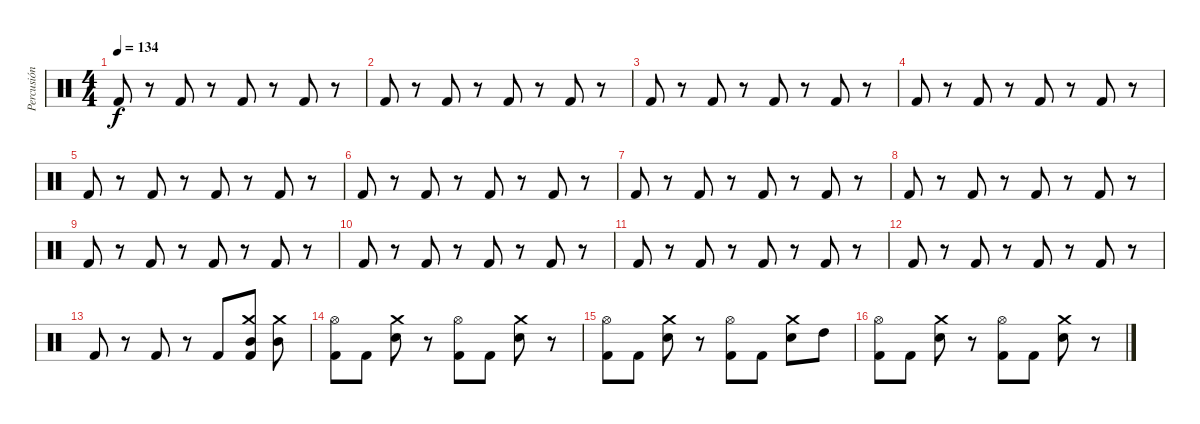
\track ("Percusión" "Percusión") {instrument percussion}
\staff {score}
\articulation defaults
\ts (4 4)
\tempo 134
\clef neutral
\ks c "Kick (hit) 2".8{dy f}
r.8 "Kick (hit) 2".8 r.8 "Kick (hit) 2".8 r.8 "Kick (hit) 2".8 r.8 |
"Kick (hit) 2".8 r.8 "Kick (hit) 2".8 r.8 "Kick (hit) 2".8 r.8 "Kick (hit) 2".8 r.8 |
"Kick (hit) 2".8 r.8 "Kick (hit) 2".8 r.8 "Kick (hit) 2".8 r.8 "Kick (hit) 2".8 r.8 |
"Kick (hit) 2".8 r.8 "Kick (hit) 2".8 r.8 "Kick (hit) 2".8 r.8 "Kick (hit) 2".8 r.8 |
"Kick (hit) 2".8 r.8 "Kick (hit) 2".8 r.8 "Kick (hit) 2".8 r.8 "Kick (hit) 2".8 r.8 |
"Kick (hit) 2".8 r.8 "Kick (hit) 2".8 r.8 "Kick (hit) 2".8 r.8 "Kick (hit) 2".8 r.8 |
"Kick (hit) 2".8 r.8 "Kick (hit) 2".8 r.8 "Kick (hit) 2".8 r.8 "Kick (hit) 2".8 r.8 |
"Kick (hit) 2".8 r.8 "Kick (hit) 2".8 r.8 "Kick (hit) 2".8 r.8 "Kick (hit) 2".8 r.8 |
"Kick (hit) 2".8 r.8 "Kick (hit) 2".8 r.8 "Kick (hit) 2".8 r.8 "Kick (hit) 2".8 r.8 |
"Kick (hit) 2".8 r.8 "Kick (hit) 2".8 r.8 "Kick (hit) 2".8 r.8 "Kick (hit) 2".8 r.8 |
"Kick (hit) 2".8 r.8 "Kick (hit) 2".8 r.8 "Kick (hit) 2".8 r.8 "Kick (hit) 2".8 r.8 |
"Kick (hit) 2".8 r.8 "Kick (hit) 2".8 r.8 "Kick (hit) 2".8 r.8 "Kick (hit) 2".8 r.8 |
"Kick (hit) 2".8 r.8 "Kick (hit) 2".8 r.8 "Kick (hit) 2".8 ("Crash medium (hit)" "Mid Tom (hit)" "Kick (hit) 2").8 ("Crash medium (hit)" "Mid Tom (hit)").8 |
("Hi-Hat (open)" "Kick (hit) 2").8 "Kick (hit) 2".8 ("Crash medium (hit)" "Snare (hit) 2").8 r.8 ("Hi-Hat (open)" "Kick (hit) 2").8 "Kick (hit) 2".8 ("Crash medium (hit)" "Snare (hit) 2").8 r.8 |
("Hi-Hat (open)" "Kick (hit) 2").8 "Kick (hit) 2".8 ("Crash medium (hit)" "Snare (hit) 2").8 r.8 ("Hi-Hat (open)" "Kick (hit) 2").8 "Kick (hit) 2".8 ("Crash medium (hit)" "Snare (hit) 2").8 "High Tom (hit)".8 |
("Hi-Hat (open)" "Kick (hit) 2").8 "Kick (hit) 2".8 ("Crash medium (hit)" "Snare (hit) 2").8 r.8 ("Hi-Hat (open)" "Kick (hit) 2").8 "Kick (hit) 2".8 ("Crash medium (hit)" "Snare (hit) 2").8 r.8
